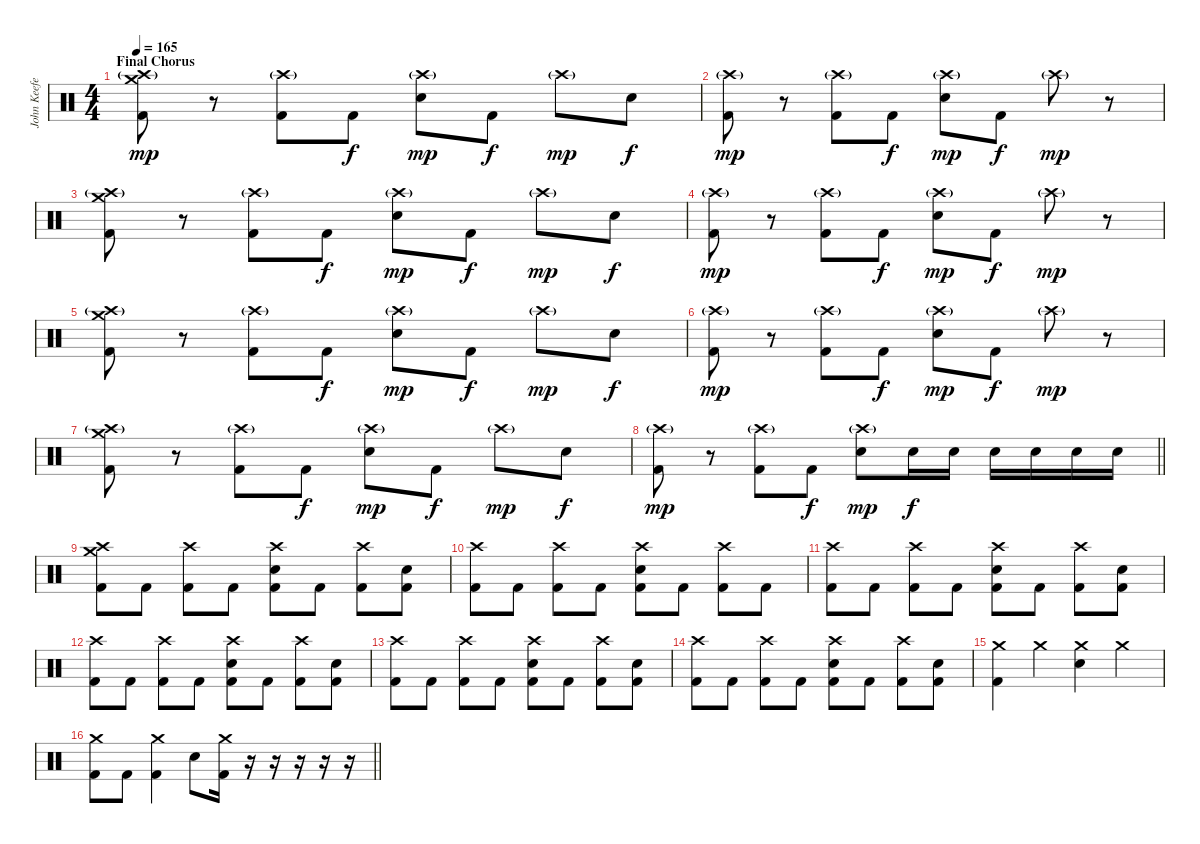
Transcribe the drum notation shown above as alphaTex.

\track ("John Keefe (Percussion)" "John Keefe") {instrument percussion}
\staff {score}
\articulation defaults
\ts (4 4)
\section ("" "Final Chorus")
\tempo 165
\clef neutral
\ks c
("Crash high (hit)"{g} "Crash medium (hit)" "Kick (hit) 2").8{dy mp} r.8 ("Crash high (hit)"{g} "Kick (hit) 2").8 "Kick (hit) 2".8{dy f} ("Crash high (hit)"{g} "Electric Snare (hit)").8{dy mp} "Kick (hit) 2".8{dy f} "Crash high (hit)"{g}.8{dy mp} "Electric Snare (hit)".8{dy f} |
("Crash high (hit)"{g} "Kick (hit) 2").8{dy mp} r.8 ("Crash high (hit)"{g} "Kick (hit) 2").8 "Kick (hit) 2".8{dy f} ("Crash high (hit)"{g} "Electric Snare (hit)").8{dy mp} "Kick (hit) 2".8{dy f} "Crash high (hit)"{g}.8{dy mp} r.8 |
("Crash high (hit)"{g} "Crash medium (hit)" "Kick (hit) 2").8 r.8 ("Crash high (hit)"{g} "Kick (hit) 2").8 "Kick (hit) 2".8{dy f} ("Crash high (hit)"{g} "Electric Snare (hit)").8{dy mp} "Kick (hit) 2".8{dy f} "Crash high (hit)"{g}.8{dy mp} "Electric Snare (hit)".8{dy f} |
("Crash high (hit)"{g} "Kick (hit) 2").8{dy mp} r.8 ("Crash high (hit)"{g} "Kick (hit) 2").8 "Kick (hit) 2".8{dy f} ("Crash high (hit)"{g} "Electric Snare (hit)").8{dy mp} "Kick (hit) 2".8{dy f} "Crash high (hit)"{g}.8{dy mp} r.8 |
("Crash high (hit)"{g} "Crash medium (hit)" "Kick (hit) 2").8 r.8 ("Crash high (hit)"{g} "Kick (hit) 2").8 "Kick (hit) 2".8{dy f} ("Crash high (hit)"{g} "Electric Snare (hit)").8{dy mp} "Kick (hit) 2".8{dy f} "Crash high (hit)"{g}.8{dy mp} "Electric Snare (hit)".8{dy f} |
("Crash high (hit)"{g} "Kick (hit) 2").8{dy mp} r.8 ("Crash high (hit)"{g} "Kick (hit) 2").8 "Kick (hit) 2".8{dy f} ("Crash high (hit)"{g} "Electric Snare (hit)").8{dy mp} "Kick (hit) 2".8{dy f} "Crash high (hit)"{g}.8{dy mp} r.8 |
("Crash high (hit)"{g} "Crash medium (hit)" "Kick (hit) 2").8 r.8 ("Crash high (hit)"{g} "Kick (hit) 2").8 "Kick (hit) 2".8{dy f} ("Crash high (hit)"{g} "Electric Snare (hit)").8{dy mp} "Kick (hit) 2".8{dy f} "Crash high (hit)"{g}.8{dy mp} "Electric Snare (hit)".8{dy f} |
\barLineRight lightlight
("Crash high (hit)"{g} "Kick (hit) 2").8{dy mp} r.8 ("Crash high (hit)"{g} "Kick (hit) 2").8 "Kick (hit) 2".8{dy f} ("Crash high (hit)"{g} "Electric Snare (hit)").8{dy mp} "Electric Snare (hit)".16{dy f} "Electric Snare (hit)".16 "Electric Snare (hit)".16 "Electric Snare (hit)".16 "Electric Snare (hit)".16 "Electric Snare (hit)".16 |
("Crash medium (hit)" "Crash high (hit)" "Kick (hit) 2").8 "Kick (hit) 2".8 ("Crash high (hit)" "Kick (hit) 2").8 "Kick (hit) 2".8 ("Crash high (hit)" "Electric Snare (hit)" "Kick (hit) 2").8 "Kick (hit) 2".8 ("Crash high (hit)" "Kick (hit) 2").8 ("Electric Snare (hit)" "Kick (hit) 2").8 |
("Crash high (hit)" "Kick (hit) 2").8 "Kick (hit) 2".8 ("Crash high (hit)" "Kick (hit) 2").8 "Kick (hit) 2".8 ("Crash high (hit)" "Electric Snare (hit)" "Kick (hit) 2").8 "Kick (hit) 2".8 ("Crash high (hit)" "Kick (hit) 2").8 "Kick (hit) 2".8 |
("Crash high (hit)" "Kick (hit) 2").8 "Kick (hit) 2".8 ("Crash high (hit)" "Kick (hit) 2").8 "Kick (hit) 2".8 ("Crash high (hit)" "Electric Snare (hit)" "Kick (hit) 2").8 "Kick (hit) 2".8 ("Crash high (hit)" "Kick (hit) 2").8 ("Electric Snare (hit)" "Kick (hit) 2").8 |
("Crash high (hit)" "Kick (hit) 2").8 "Kick (hit) 2".8 ("Crash high (hit)" "Kick (hit) 2").8 "Kick (hit) 2".8 ("Crash high (hit)" "Electric Snare (hit)" "Kick (hit) 2").8 "Kick (hit) 2".8 ("Crash high (hit)" "Kick (hit) 2").8 ("Electric Snare (hit)" "Kick (hit) 2").8 |
("Crash high (hit)" "Kick (hit) 2").8 "Kick (hit) 2".8 ("Crash high (hit)" "Kick (hit) 2").8 "Kick (hit) 2".8 ("Crash high (hit)" "Electric Snare (hit)" "Kick (hit) 2").8 "Kick (hit) 2".8 ("Crash high (hit)" "Kick (hit) 2").8 ("Electric Snare (hit)" "Kick (hit) 2").8 |
("Crash high (hit)" "Kick (hit) 2").8 "Kick (hit) 2".8 ("Crash high (hit)" "Kick (hit) 2").8 "Kick (hit) 2".8 ("Crash high (hit)" "Electric Snare (hit)" "Kick (hit) 2").8 "Kick (hit) 2".8 ("Crash high (hit)" "Kick (hit) 2").8 ("Electric Snare (hit)" "Kick (hit) 2").8 |
("Crash medium (hit)" "Kick (hit) 2").4 "Crash medium (hit)".4 ("Crash medium (hit)" "Electric Snare (hit)").4 "Crash medium (hit)".4 |
\barLineRight lightlight
("Crash medium (hit)" "Kick (hit) 2").8 "Kick (hit) 2".8 ("Crash medium (hit)" "Kick (hit) 2").4 "Electric Snare (hit)".8 ("Crash medium (hit)" "Kick (hit) 2").16 r.16 r.16 r.16 r.16 r.16
